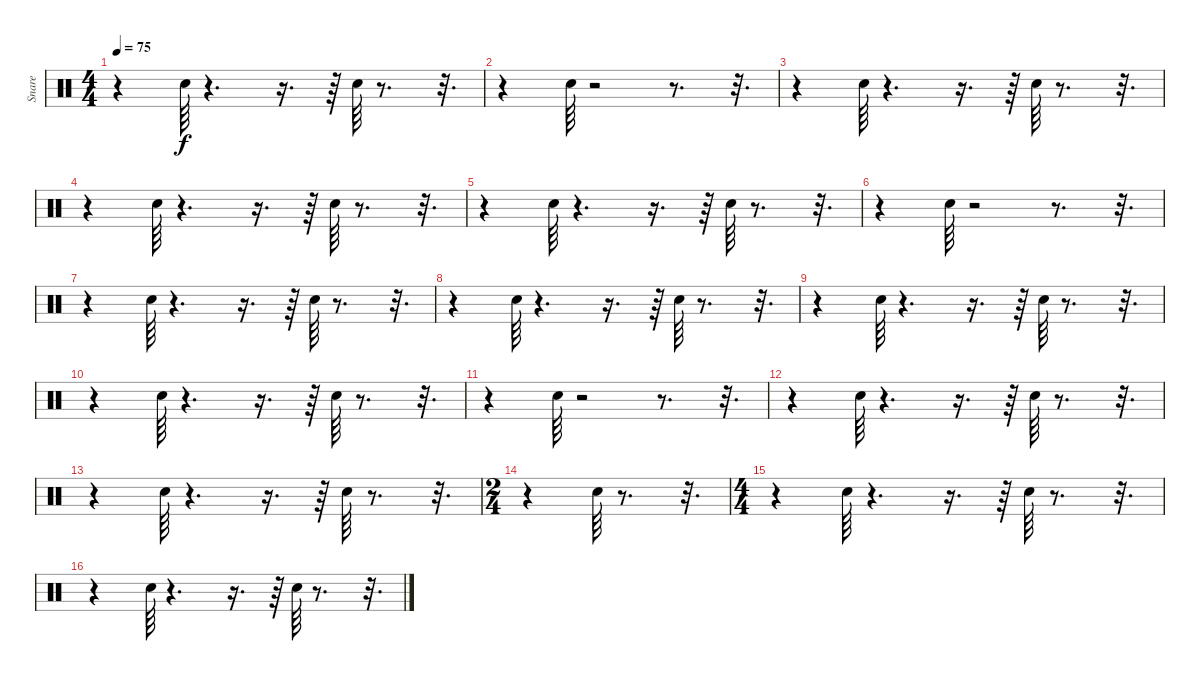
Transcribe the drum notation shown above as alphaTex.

\track ("Snare" "Snare") {instrument percussion}
\staff {score}
\articulation defaults
\ts (4 4)
\tempo 75
\clef neutral
\ks c
r.4{dy f} "Electric Snare (hit)".64 r.4{d} r.16{d} r.64 "Electric Snare (hit)".64 r.8{d} r.32{d} |
r.4 "Electric Snare (hit)".64 r.2 r.8{d} r.32{d} |
r.4 "Electric Snare (hit)".64 r.4{d} r.16{d} r.64 "Electric Snare (hit)".64 r.8{d} r.32{d} |
r.4 "Electric Snare (hit)".64 r.4{d} r.16{d} r.64 "Electric Snare (hit)".64 r.8{d} r.32{d} |
r.4 "Electric Snare (hit)".64 r.4{d} r.16{d} r.64 "Electric Snare (hit)".64 r.8{d} r.32{d} |
r.4 "Electric Snare (hit)".64 r.2 r.8{d} r.32{d} |
r.4 "Electric Snare (hit)".64 r.4{d} r.16{d} r.64 "Electric Snare (hit)".64 r.8{d} r.32{d} |
r.4 "Electric Snare (hit)".64 r.4{d} r.16{d} r.64 "Electric Snare (hit)".64 r.8{d} r.32{d} |
r.4 "Electric Snare (hit)".64 r.4{d} r.16{d} r.64 "Electric Snare (hit)".64 r.8{d} r.32{d} |
r.4 "Electric Snare (hit)".64 r.4{d} r.16{d} r.64 "Electric Snare (hit)".64 r.8{d} r.32{d} |
r.4 "Electric Snare (hit)".64 r.2 r.8{d} r.32{d} |
r.4 "Electric Snare (hit)".64 r.4{d} r.16{d} r.64 "Electric Snare (hit)".64 r.8{d} r.32{d} |
r.4 "Electric Snare (hit)".64 r.4{d} r.16{d} r.64 "Electric Snare (hit)".64 r.8{d} r.32{d} |
\ts (2 4)
r.4 "Electric Snare (hit)".64 r.8{d} r.32{d} |
\ts (4 4)
r.4 "Electric Snare (hit)".64 r.4{d} r.16{d} r.64 "Electric Snare (hit)".64 r.8{d} r.32{d} |
r.4 "Electric Snare (hit)".64 r.4{d} r.16{d} r.64 "Electric Snare (hit)".64 r.8{d} r.32{d}
